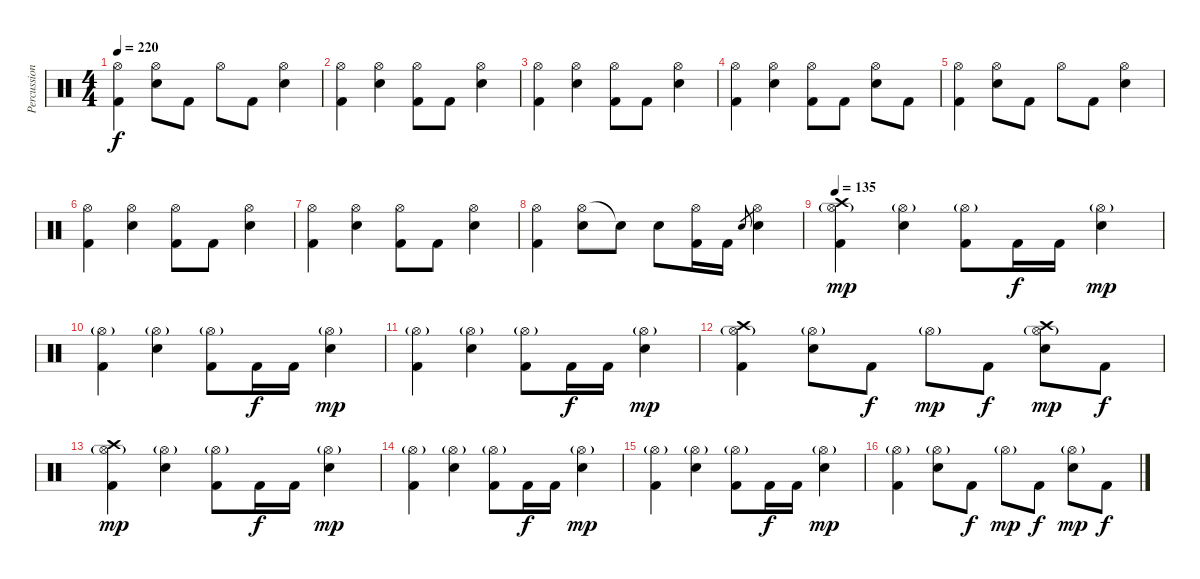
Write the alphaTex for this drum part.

\track ("Percussion" "Percussion") {instrument percussion}
\staff {score}
\articulation defaults
\ts (4 4)
\tempo 220
\clef neutral
\ks c
("Hi-Hat (open)" "Kick (hit) 2").4{dy f} ("Hi-Hat (open)" "Snare (hit) 2").8 "Kick (hit) 2".8 "Hi-Hat (open)".8 "Kick (hit) 2".8 ("Hi-Hat (open)" "Snare (hit) 2").4 |
("Hi-Hat (open)" "Kick (hit) 2").4 ("Hi-Hat (open)" "Snare (hit) 2").4 ("Hi-Hat (open)" "Kick (hit) 2").8 "Kick (hit) 2".8 ("Hi-Hat (open)" "Snare (hit) 2").4 |
("Hi-Hat (open)" "Kick (hit) 2").4 ("Hi-Hat (open)" "Snare (hit) 2").4 ("Hi-Hat (open)" "Kick (hit) 2").8 "Kick (hit) 2".8 ("Hi-Hat (open)" "Snare (hit) 2").4 |
("Hi-Hat (open)" "Kick (hit) 2").4 ("Hi-Hat (open)" "Snare (hit) 2").4 ("Hi-Hat (open)" "Kick (hit) 2").8 "Kick (hit) 2".8 ("Hi-Hat (open)" "Snare (hit) 2").8 "Kick (hit) 2".8 |
("Hi-Hat (open)" "Kick (hit) 2").4 ("Hi-Hat (open)" "Snare (hit) 2").8 "Kick (hit) 2".8 "Hi-Hat (open)".8 "Kick (hit) 2".8 ("Hi-Hat (open)" "Snare (hit) 2").4 |
("Hi-Hat (open)" "Kick (hit) 2").4 ("Hi-Hat (open)" "Snare (hit) 2").4 ("Hi-Hat (open)" "Kick (hit) 2").8 "Kick (hit) 2".8 ("Hi-Hat (open)" "Snare (hit) 2").4 |
("Hi-Hat (open)" "Kick (hit) 2").4 ("Hi-Hat (open)" "Snare (hit) 2").4 ("Hi-Hat (open)" "Kick (hit) 2").8 "Kick (hit) 2".8 ("Hi-Hat (open)" "Snare (hit) 2").4 |
("Hi-Hat (open)" "Kick (hit) 2").4 ("Hi-Hat (open)" "Snare (hit) 2").8 "Snare (hit)"{t}.8 "Snare (hit) 2".8 ("Hi-Hat (open)" "Kick (hit) 2").16 "Kick (hit) 2".16 "Snare (hit) 2".8{gr} ("Hi-Hat (open)" "Snare (hit) 2").4 |
\tempo 135
("Hi-Hat (open)"{g} "Crash high (hit)" "Kick (hit) 2").4{dy mp} ("Hi-Hat (open)"{g} "Snare (hit) 2").4 ("Hi-Hat (open)"{g} "Kick (hit) 2").8 "Kick (hit) 2".16{dy f} "Kick (hit) 2".16 ("Hi-Hat (open)"{g} "Snare (hit) 2").4{dy mp} |
("Hi-Hat (open)"{g} "Kick (hit) 2").4 ("Hi-Hat (open)"{g} "Snare (hit) 2").4 ("Hi-Hat (open)"{g} "Kick (hit) 2").8 "Kick (hit) 2".16{dy f} "Kick (hit) 2".16 ("Hi-Hat (open)"{g} "Snare (hit) 2").4{dy mp} |
("Hi-Hat (open)"{g} "Kick (hit) 2").4 ("Hi-Hat (open)"{g} "Snare (hit) 2").4 ("Hi-Hat (open)"{g} "Kick (hit) 2").8 "Kick (hit) 2".16{dy f} "Kick (hit) 2".16 ("Hi-Hat (open)"{g} "Snare (hit) 2").4{dy mp} |
("Hi-Hat (open)"{g} "Crash high (hit)" "Kick (hit) 2").4 ("Hi-Hat (open)"{g} "Snare (hit) 2").8 "Kick (hit) 2".8{dy f} "Hi-Hat (open)"{g}.8{dy mp} "Kick (hit) 2".8{dy f} ("Hi-Hat (open)"{g} "Crash high (hit)" "Snare (hit) 2").8{dy mp} "Kick (hit) 2".8{dy f} |
("Hi-Hat (open)"{g} "Crash high (hit)" "Kick (hit) 2").4{dy mp} ("Hi-Hat (open)"{g} "Snare (hit) 2").4 ("Hi-Hat (open)"{g} "Kick (hit) 2").8 "Kick (hit) 2".16{dy f} "Kick (hit) 2".16 ("Hi-Hat (open)"{g} "Snare (hit) 2").4{dy mp} |
("Hi-Hat (open)"{g} "Kick (hit) 2").4 ("Hi-Hat (open)"{g} "Snare (hit) 2").4 ("Hi-Hat (open)"{g} "Kick (hit) 2").8 "Kick (hit) 2".16{dy f} "Kick (hit) 2".16 ("Hi-Hat (open)"{g} "Snare (hit) 2").4{dy mp} |
("Hi-Hat (open)"{g} "Kick (hit) 2").4 ("Hi-Hat (open)"{g} "Snare (hit) 2").4 ("Hi-Hat (open)"{g} "Kick (hit) 2").8 "Kick (hit) 2".16{dy f} "Kick (hit) 2".16 ("Hi-Hat (open)"{g} "Snare (hit) 2").4{dy mp} |
("Hi-Hat (open)"{g} "Kick (hit) 2").4 ("Hi-Hat (open)"{g} "Snare (hit) 2").8 "Kick (hit) 2".8{dy f} "Hi-Hat (open)"{g}.8{dy mp} "Kick (hit) 2".8{dy f} ("Hi-Hat (open)"{g} "Snare (hit) 2").8{dy mp} "Kick (hit) 2".8{dy f}
